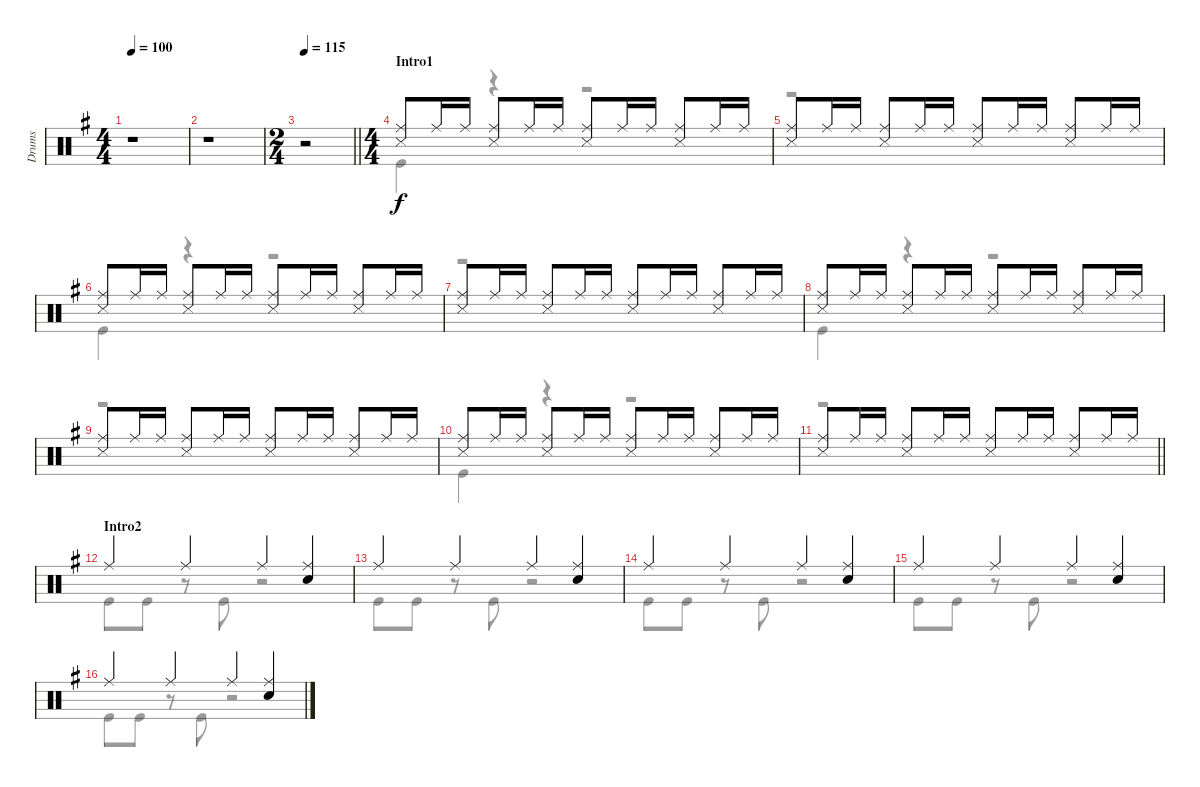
\track ("Drums" "Drums") {instrument percussion}
\staff {score}
\articulation defaults
\voice
\ts (4 4)
\tempo 100
\clef neutral
\ks g
r.1{dy f} |
r.1 |
\ts (2 4)
\tempo 115
\barLineRight lightlight
r.2 |
\ts (4 4)
\section ("" "Intro1")
("Ride (middle)" "Snare (side stick) 3").8 "Ride (middle)".16 "Ride (middle)".16 ("Ride (middle)" "Snare (side stick) 3").8 "Ride (middle)".16 "Ride (middle)".16 ("Ride (middle)" "Snare (side stick) 3").8 "Ride (middle)".16 "Ride (middle)".16 ("Ride (middle)" "Snare (side stick) 3").8 "Ride (middle)".16 "Ride (middle)".16 |
("Ride (middle)" "Snare (side stick) 3").8 "Ride (middle)".16 "Ride (middle)".16 ("Ride (middle)" "Snare (side stick) 3").8 "Ride (middle)".16 "Ride (middle)".16 ("Ride (middle)" "Snare (side stick) 3").8 "Ride (middle)".16 "Ride (middle)".16 ("Ride (middle)" "Snare (side stick) 3").8 "Ride (middle)".16 "Ride (middle)".16 |
("Ride (middle)" "Snare (side stick) 3").8 "Ride (middle)".16 "Ride (middle)".16 ("Ride (middle)" "Snare (side stick) 3").8 "Ride (middle)".16 "Ride (middle)".16 ("Ride (middle)" "Snare (side stick) 3").8 "Ride (middle)".16 "Ride (middle)".16 ("Ride (middle)" "Snare (side stick) 3").8 "Ride (middle)".16 "Ride (middle)".16 |
("Ride (middle)" "Snare (side stick) 3").8 "Ride (middle)".16 "Ride (middle)".16 ("Ride (middle)" "Snare (side stick) 3").8 "Ride (middle)".16 "Ride (middle)".16 ("Ride (middle)" "Snare (side stick) 3").8 "Ride (middle)".16 "Ride (middle)".16 ("Ride (middle)" "Snare (side stick) 3").8 "Ride (middle)".16 "Ride (middle)".16 |
("Ride (middle)" "Snare (side stick) 3").8 "Ride (middle)".16 "Ride (middle)".16 ("Ride (middle)" "Snare (side stick) 3").8 "Ride (middle)".16 "Ride (middle)".16 ("Ride (middle)" "Snare (side stick) 3").8 "Ride (middle)".16 "Ride (middle)".16 ("Ride (middle)" "Snare (side stick) 3").8 "Ride (middle)".16 "Ride (middle)".16 |
("Ride (middle)" "Snare (side stick) 3").8 "Ride (middle)".16 "Ride (middle)".16 ("Ride (middle)" "Snare (side stick) 3").8 "Ride (middle)".16 "Ride (middle)".16 ("Ride (middle)" "Snare (side stick) 3").8 "Ride (middle)".16 "Ride (middle)".16 ("Ride (middle)" "Snare (side stick) 3").8 "Ride (middle)".16 "Ride (middle)".16 |
("Ride (middle)" "Snare (side stick) 3").8 "Ride (middle)".16 "Ride (middle)".16 ("Ride (middle)" "Snare (side stick) 3").8 "Ride (middle)".16 "Ride (middle)".16 ("Ride (middle)" "Snare (side stick) 3").8 "Ride (middle)".16 "Ride (middle)".16 ("Ride (middle)" "Snare (side stick) 3").8 "Ride (middle)".16 "Ride (middle)".16 |
\barLineRight lightlight
("Ride (middle)" "Snare (side stick) 3").8 "Ride (middle)".16 "Ride (middle)".16 ("Ride (middle)" "Snare (side stick) 3").8 "Ride (middle)".16 "Ride (middle)".16 ("Ride (middle)" "Snare (side stick) 3").8 "Ride (middle)".16 "Ride (middle)".16 ("Ride (middle)" "Snare (side stick) 3").8 "Ride (middle)".16 "Ride (middle)".16 |
\section ("" "Intro2")
"Ride (middle)".4 "Ride (middle)".4 "Ride (middle)".4 ("Ride (middle)" "Snare (hit) 2").4 |
"Ride (middle)".4 "Ride (middle)".4 "Ride (middle)".4 ("Ride (middle)" "Snare (hit) 2").4 |
"Ride (middle)".4 "Ride (middle)".4 "Ride (middle)".4 ("Ride (middle)" "Snare (hit) 2").4 |
"Ride (middle)".4 "Ride (middle)".4 "Ride (middle)".4 ("Ride (middle)" "Snare (hit) 2").4 |
"Ride (middle)".4 "Ride (middle)".4 "Ride (middle)".4 ("Ride (middle)" "Snare (hit) 2").4
\voice
\clef neutral
\ottava regular
\simile none
\ks g
r.1{dy f} |
r.1 |
\barLineRight lightlight
r.2 |
"Kick (hit)".4 r.4 r.2 |
r.1 |
"Kick (hit)".4 r.4 r.2 |
r.1 |
"Kick (hit)".4 r.4 r.2 |
r.1 |
"Kick (hit)".4 r.4 r.2 |
\barLineRight lightlight
r.1 |
"Kick (hit)".8 "Kick (hit)".8 r.8 "Kick (hit)".8 r.2 |
"Kick (hit)".8 "Kick (hit)".8 r.8 "Kick (hit)".8 r.2 |
"Kick (hit)".8 "Kick (hit)".8 r.8 "Kick (hit)".8 r.2 |
"Kick (hit)".8 "Kick (hit)".8 r.8 "Kick (hit)".8 r.2 |
"Kick (hit)".8 "Kick (hit)".8 r.8 "Kick (hit)".8 r.2
